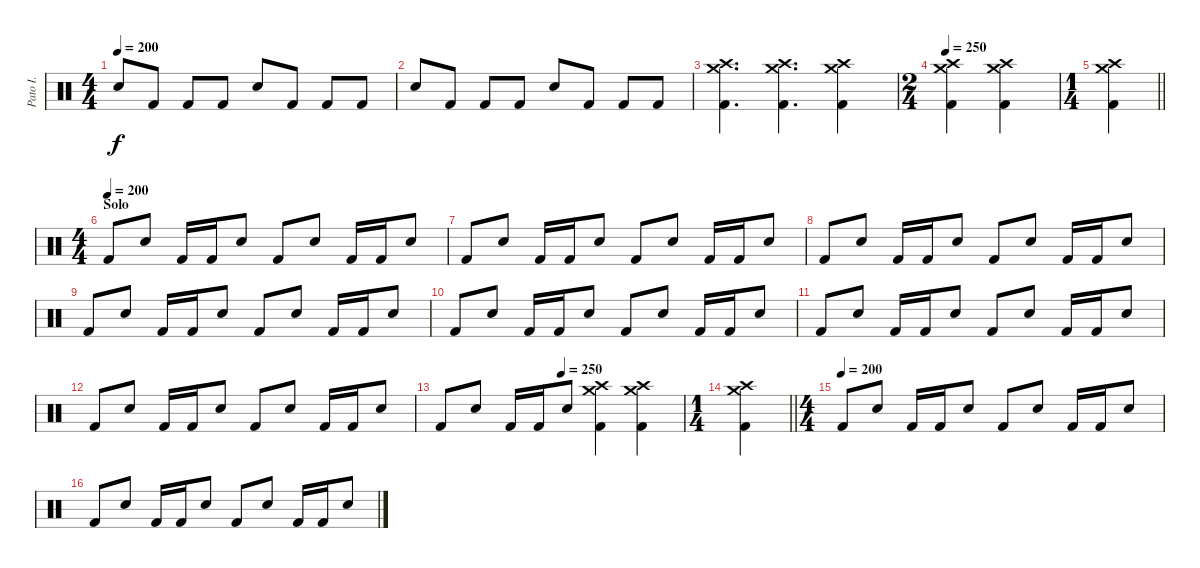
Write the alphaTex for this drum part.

\track ("Pato I." "Pato I.") {instrument percussion}
\staff {score}
\articulation defaults
\ts (4 4)
\tempo 200
\clef neutral
\ks c "Snare (hit) 2".8{dy f} "Kick (hit) 2".8 "Kick (hit) 2".8 "Kick (hit) 2".8 "Snare (hit) 2".8 "Kick (hit) 2".8 "Kick (hit) 2".8 "Kick (hit) 2".8
|
"Snare (hit) 2".8 "Kick (hit) 2".8 "Kick (hit) 2".8 "Kick (hit) 2".8 "Snare (hit) 2".8 "Kick (hit) 2".8 "Kick (hit) 2".8 "Kick (hit) 2".8 |
("Crash high (hit)" "Crash medium (hit)" "Kick (hit) 2").4{d} ("Crash high (hit)" "Crash medium (hit)" "Kick (hit) 2").4{d} ("Crash high (hit)" "Crash medium (hit)" "Kick (hit) 2").4 |
\ts (2 4)
\tempo 250
("Crash high (hit)" "Crash medium (hit)" "Kick (hit) 2").4 ("Crash high (hit)" "Crash medium (hit)" "Kick (hit) 2").4 |
\ts (1 4)
\barLineRight lightlight
("Crash high (hit)" "Crash medium (hit)" "Kick (hit) 2").4 |
\ts (4 4)
\section ("" "Solo")
\tempo (200)
"Kick (hit) 2".8 "Snare (hit) 2".8 "Kick (hit) 2".16 "Kick (hit) 2".16 "Snare (hit) 2".8 "Kick (hit) 2".8 "Snare (hit) 2".8 "Kick (hit) 2".16 "Kick (hit) 2".16 "Snare (hit) 2".8 |
"Kick (hit) 2".8 "Snare (hit) 2".8 "Kick (hit) 2".16 "Kick (hit) 2".16 "Snare (hit) 2".8 "Kick (hit) 2".8 "Snare (hit) 2".8 "Kick (hit) 2".16 "Kick (hit) 2".16 "Snare (hit) 2".8 |
"Kick (hit) 2".8 "Snare (hit) 2".8 "Kick (hit) 2".16 "Kick (hit) 2".16 "Snare (hit) 2".8 "Kick (hit) 2".8 "Snare (hit) 2".8 "Kick (hit) 2".16 "Kick (hit) 2".16 "Snare (hit) 2".8 |
"Kick (hit) 2".8 "Snare (hit) 2".8 "Kick (hit) 2".16 "Kick (hit) 2".16 "Snare (hit) 2".8 "Kick (hit) 2".8 "Snare (hit) 2".8 "Kick (hit) 2".16 "Kick (hit) 2".16 "Snare (hit) 2".8 |
"Kick (hit) 2".8 "Snare (hit) 2".8 "Kick (hit) 2".16 "Kick (hit) 2".16 "Snare (hit) 2".8 "Kick (hit) 2".8 "Snare (hit) 2".8 "Kick (hit) 2".16 "Kick (hit) 2".16 "Snare (hit) 2".8 |
"Kick (hit) 2".8 "Snare (hit) 2".8 "Kick (hit) 2".16 "Kick (hit) 2".16 "Snare (hit) 2".8 "Kick (hit) 2".8 "Snare (hit) 2".8 "Kick (hit) 2".16 "Kick (hit) 2".16 "Snare (hit) 2".8 |
"Kick (hit) 2".8 "Snare (hit) 2".8 "Kick (hit) 2".16 "Kick (hit) 2".16 "Snare (hit) 2".8 "Kick (hit) 2".8 "Snare (hit) 2".8 "Kick (hit) 2".16 "Kick (hit) 2".16 "Snare (hit) 2".8 |
\tempo (250 0.5)
"Kick (hit) 2".8 "Snare (hit) 2".8 "Kick (hit) 2".16 "Kick (hit) 2".16 "Snare (hit) 2".8 ("Crash high (hit)" "Crash medium (hit)" "Kick (hit) 2").4 ("Crash high (hit)" "Crash medium (hit)" "Kick (hit) 2").4 |
\ts (1 4)
\barLineRight lightlight
("Crash high (hit)" "Crash medium (hit)" "Kick (hit) 2").4 |
\ts (4 4)
\tempo (200)
"Kick (hit) 2".8 "Snare (hit) 2".8 "Kick (hit) 2".16 "Kick (hit) 2".16 "Snare (hit) 2".8 "Kick (hit) 2".8 "Snare (hit) 2".8 "Kick (hit) 2".16 "Kick (hit) 2".16 "Snare (hit) 2".8 |
"Kick (hit) 2".8 "Snare (hit) 2".8 "Kick (hit) 2".16 "Kick (hit) 2".16 "Snare (hit) 2".8 "Kick (hit) 2".8 "Snare (hit) 2".8 "Kick (hit) 2".16 "Kick (hit) 2".16 "Snare (hit) 2".8
